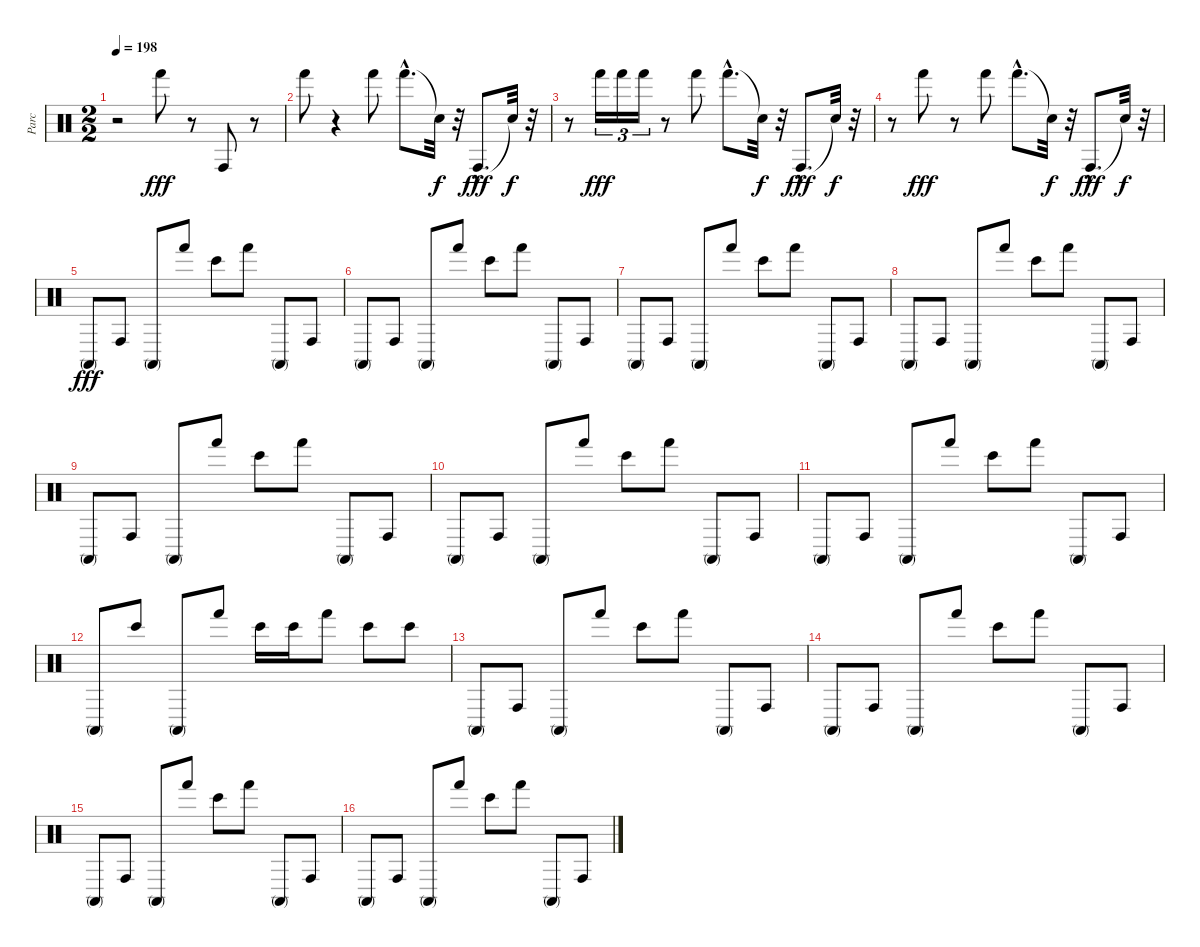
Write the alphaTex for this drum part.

\track ("Parc" "Parc") {instrument percussion}
\staff {score}
\articulation defaults
\ts (2 2)
\tempo 198
\clef neutral
\ks c
r.2{dy fff} "Hand (hit)".8 r.8 "Conga high (hit)".8 r.8 |
"Hand (hit)".8 r.4 "Hand (hit)".8 "Hand (hit)"{hac}.8{d} "Snare (hit)"{t}.32{dy f} r.32 "Conga high (hit)"{hac}.8{d dy fff} "Snare (hit)"{t}.32{dy f} r.32 |
r.8 "Hand (hit)".16{tu (3 2) dy fff} "Hand (hit)".16{tu (3 2)} "Hand (hit)".16{tu (3 2)} r.8 "Hand (hit)".8 "Hand (hit)"{hac}.8{d} "Snare (hit)"{t}.32{dy f} r.32 "Conga high (hit)"{hac}.8{d dy fff} "Snare (hit)"{t}.32{dy f} r.32 |
r.8 "Hand (hit)".8{dy fff} r.8 "Hand (hit)".8 "Hand (hit)"{hac}.8{d} "Snare (hit)"{t}.32{dy f} r.32 "Conga high (hit)"{hac}.8{d dy fff} "Snare (hit)"{t}.32{dy f} r.32 |
"Conga high (mute)".8{dy fff} "Conga high (hit)".8 "Conga high (mute)".8 "Hand (hit)".8 "Bongo High (hit)".8 "Hand (hit)".8 "Conga high (mute)".8 "Conga high (hit)".8 |
"Conga high (mute)".8 "Conga high (hit)".8 "Conga high (mute)".8 "Hand (hit)".8 "Bongo High (hit)".8 "Hand (hit)".8 "Conga high (mute)".8 "Conga high (hit)".8 |
"Conga high (mute)".8 "Conga high (hit)".8 "Conga high (mute)".8 "Hand (hit)".8 "Bongo High (hit)".8 "Hand (hit)".8 "Conga high (mute)".8 "Conga high (hit)".8 |
"Conga high (mute)".8 "Conga high (hit)".8 "Conga high (mute)".8 "Hand (hit)".8 "Bongo High (hit)".8 "Hand (hit)".8 "Conga high (mute)".8 "Conga high (hit)".8 |
"Conga high (mute)".8 "Conga high (hit)".8 "Conga high (mute)".8 "Hand (hit)".8 "Bongo High (hit)".8 "Hand (hit)".8 "Conga high (mute)".8 "Conga high (hit)".8 |
"Conga high (mute)".8 "Conga high (hit)".8 "Conga high (mute)".8 "Hand (hit)".8 "Bongo High (hit)".8 "Hand (hit)".8 "Conga high (mute)".8 "Conga high (hit)".8 |
"Conga high (mute)".8 "Conga high (hit)".8 "Conga high (mute)".8 "Hand (hit)".8 "Bongo High (hit)".8 "Hand (hit)".8 "Conga high (mute)".8 "Conga high (hit)".8 |
"Conga high (mute)".8 "Bongo High (hit)".8 "Conga high (mute)".8 "Hand (hit)".8 "Bongo High (hit)".16 "Bongo High (hit)".16 "Hand (hit)".8 "Bongo High (hit)".8 "Bongo High (hit)".8 |
"Conga high (mute)".8 "Conga high (hit)".8 "Conga high (mute)".8 "Hand (hit)".8 "Bongo High (hit)".8 "Hand (hit)".8 "Conga high (mute)".8 "Conga high (hit)".8 |
"Conga high (mute)".8 "Conga high (hit)".8 "Conga high (mute)".8 "Hand (hit)".8 "Bongo High (hit)".8 "Hand (hit)".8 "Conga high (mute)".8 "Conga high (hit)".8 |
"Conga high (mute)".8 "Conga high (hit)".8 "Conga high (mute)".8 "Hand (hit)".8 "Bongo High (hit)".8 "Hand (hit)".8 "Conga high (mute)".8 "Conga high (hit)".8 |
"Conga high (mute)".8 "Conga high (hit)".8 "Conga high (mute)".8 "Hand (hit)".8 "Bongo High (hit)".8 "Hand (hit)".8 "Conga high (mute)".8 "Conga high (hit)".8
